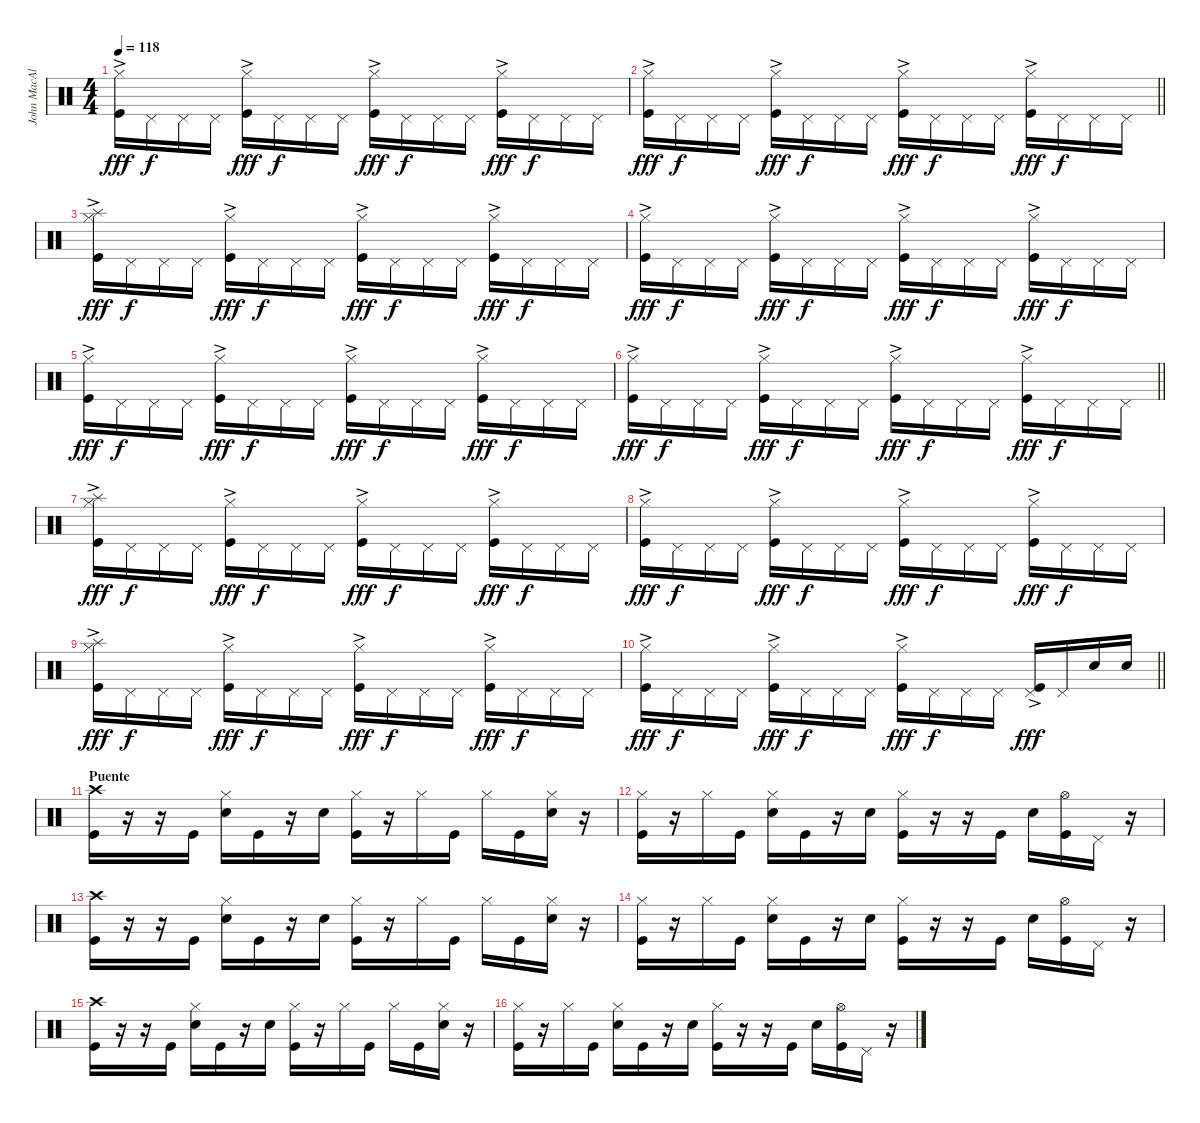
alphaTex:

\track ("John MacAluso" "John MacAl") {instrument percussion}
\staff {score}
\articulation defaults
\ts (4 4)
\tempo 118
\clef neutral
\ks c
("Hi-Hat (closed)"{ac} "Kick (hit)").16{dy fff} "Pedal Hi-Hat (hit)".16{dy f} "Pedal Hi-Hat (hit)".16 "Pedal Hi-Hat (hit)".16 ("Hi-Hat (closed)"{ac} "Kick (hit)").16{dy fff} "Pedal Hi-Hat (hit)".16{dy f} "Pedal Hi-Hat (hit)".16 "Pedal Hi-Hat (hit)".16 ("Hi-Hat (closed)"{ac} "Kick (hit)").16{dy fff} "Pedal Hi-Hat (hit)".16{dy f} "Pedal Hi-Hat (hit)".16 "Pedal Hi-Hat (hit)".16 ("Hi-Hat (closed)"{ac} "Kick (hit)").16{dy fff} "Pedal Hi-Hat (hit)".16{dy f} "Pedal Hi-Hat (hit)".16 "Pedal Hi-Hat (hit)".16 |
\barLineRight lightlight
("Hi-Hat (closed)"{ac} "Kick (hit)").16{dy fff} "Pedal Hi-Hat (hit)".16{dy f} "Pedal Hi-Hat (hit)".16 "Pedal Hi-Hat (hit)".16 ("Hi-Hat (closed)"{ac} "Kick (hit)").16{dy fff} "Pedal Hi-Hat (hit)".16{dy f} "Pedal Hi-Hat (hit)".16 "Pedal Hi-Hat (hit)".16 ("Hi-Hat (closed)"{ac} "Kick (hit)").16{dy fff} "Pedal Hi-Hat (hit)".16{dy f} "Pedal Hi-Hat (hit)".16 "Pedal Hi-Hat (hit)".16 ("Hi-Hat (closed)"{ac} "Kick (hit)").16{dy fff} "Pedal Hi-Hat (hit)".16{dy f} "Pedal Hi-Hat (hit)".16 "Pedal Hi-Hat (hit)".16 |
("Splash (hit)" "Hi-Hat (closed)"{ac} "Kick (hit)").16{dy fff} "Pedal Hi-Hat (hit)".16{dy f} "Pedal Hi-Hat (hit)".16 "Pedal Hi-Hat (hit)".16 ("Hi-Hat (closed)"{ac} "Kick (hit)").16{dy fff} "Pedal Hi-Hat (hit)".16{dy f} "Pedal Hi-Hat (hit)".16 "Pedal Hi-Hat (hit)".16 ("Hi-Hat (closed)"{ac} "Kick (hit)").16{dy fff} "Pedal Hi-Hat (hit)".16{dy f} "Pedal Hi-Hat (hit)".16 "Pedal Hi-Hat (hit)".16 ("Hi-Hat (closed)"{ac} "Kick (hit)").16{dy fff} "Pedal Hi-Hat (hit)".16{dy f} "Pedal Hi-Hat (hit)".16 "Pedal Hi-Hat (hit)".16 |
("Hi-Hat (closed)"{ac} "Kick (hit)").16{dy fff} "Pedal Hi-Hat (hit)".16{dy f} "Pedal Hi-Hat (hit)".16 "Pedal Hi-Hat (hit)".16 ("Hi-Hat (closed)"{ac} "Kick (hit)").16{dy fff} "Pedal Hi-Hat (hit)".16{dy f} "Pedal Hi-Hat (hit)".16 "Pedal Hi-Hat (hit)".16 ("Hi-Hat (closed)"{ac} "Kick (hit)").16{dy fff} "Pedal Hi-Hat (hit)".16{dy f} "Pedal Hi-Hat (hit)".16 "Pedal Hi-Hat (hit)".16 ("Hi-Hat (closed)"{ac} "Kick (hit)").16{dy fff} "Pedal Hi-Hat (hit)".16{dy f} "Pedal Hi-Hat (hit)".16 "Pedal Hi-Hat (hit)".16 |
("Hi-Hat (closed)"{ac} "Kick (hit)").16{dy fff} "Pedal Hi-Hat (hit)".16{dy f} "Pedal Hi-Hat (hit)".16 "Pedal Hi-Hat (hit)".16 ("Hi-Hat (closed)"{ac} "Kick (hit)").16{dy fff} "Pedal Hi-Hat (hit)".16{dy f} "Pedal Hi-Hat (hit)".16 "Pedal Hi-Hat (hit)".16 ("Hi-Hat (closed)"{ac} "Kick (hit)").16{dy fff} "Pedal Hi-Hat (hit)".16{dy f} "Pedal Hi-Hat (hit)".16 "Pedal Hi-Hat (hit)".16 ("Hi-Hat (closed)"{ac} "Kick (hit)").16{dy fff} "Pedal Hi-Hat (hit)".16{dy f} "Pedal Hi-Hat (hit)".16 "Pedal Hi-Hat (hit)".16 |
\barLineRight lightlight
("Hi-Hat (closed)"{ac} "Kick (hit)").16{dy fff} "Pedal Hi-Hat (hit)".16{dy f} "Pedal Hi-Hat (hit)".16 "Pedal Hi-Hat (hit)".16 ("Hi-Hat (closed)"{ac} "Kick (hit)").16{dy fff} "Pedal Hi-Hat (hit)".16{dy f} "Pedal Hi-Hat (hit)".16 "Pedal Hi-Hat (hit)".16 ("Hi-Hat (closed)"{ac} "Kick (hit)").16{dy fff} "Pedal Hi-Hat (hit)".16{dy f} "Pedal Hi-Hat (hit)".16 "Pedal Hi-Hat (hit)".16 ("Hi-Hat (closed)"{ac} "Kick (hit)").16{dy fff} "Pedal Hi-Hat (hit)".16{dy f} "Pedal Hi-Hat (hit)".16 "Pedal Hi-Hat (hit)".16 |
("Splash (hit)" "Hi-Hat (closed)"{ac} "Kick (hit)").16{dy fff} "Pedal Hi-Hat (hit)".16{dy f} "Pedal Hi-Hat (hit)".16 "Pedal Hi-Hat (hit)".16 ("Hi-Hat (closed)"{ac} "Kick (hit)").16{dy fff} "Pedal Hi-Hat (hit)".16{dy f} "Pedal Hi-Hat (hit)".16 "Pedal Hi-Hat (hit)".16 ("Hi-Hat (closed)"{ac} "Kick (hit)").16{dy fff} "Pedal Hi-Hat (hit)".16{dy f} "Pedal Hi-Hat (hit)".16 "Pedal Hi-Hat (hit)".16 ("Hi-Hat (closed)"{ac} "Kick (hit)").16{dy fff} "Pedal Hi-Hat (hit)".16{dy f} "Pedal Hi-Hat (hit)".16 "Pedal Hi-Hat (hit)".16 |
("Hi-Hat (closed)"{ac} "Kick (hit)").16{dy fff} "Pedal Hi-Hat (hit)".16{dy f} "Pedal Hi-Hat (hit)".16 "Pedal Hi-Hat (hit)".16 ("Hi-Hat (closed)"{ac} "Kick (hit)").16{dy fff} "Pedal Hi-Hat (hit)".16{dy f} "Pedal Hi-Hat (hit)".16 "Pedal Hi-Hat (hit)".16 ("Hi-Hat (closed)"{ac} "Kick (hit)").16{dy fff} "Pedal Hi-Hat (hit)".16{dy f} "Pedal Hi-Hat (hit)".16 "Pedal Hi-Hat (hit)".16 ("Hi-Hat (closed)"{ac} "Kick (hit)").16{dy fff} "Pedal Hi-Hat (hit)".16{dy f} "Pedal Hi-Hat (hit)".16 "Pedal Hi-Hat (hit)".16 |
("Splash (hit)" "Hi-Hat (closed)"{ac} "Kick (hit)").16{dy fff} "Pedal Hi-Hat (hit)".16{dy f} "Pedal Hi-Hat (hit)".16 "Pedal Hi-Hat (hit)".16 ("Hi-Hat (closed)"{ac} "Kick (hit)").16{dy fff} "Pedal Hi-Hat (hit)".16{dy f} "Pedal Hi-Hat (hit)".16 "Pedal Hi-Hat (hit)".16 ("Hi-Hat (closed)"{ac} "Kick (hit)").16{dy fff} "Pedal Hi-Hat (hit)".16{dy f} "Pedal Hi-Hat (hit)".16 "Pedal Hi-Hat (hit)".16 ("Hi-Hat (closed)"{ac} "Kick (hit)").16{dy fff} "Pedal Hi-Hat (hit)".16{dy f} "Pedal Hi-Hat (hit)".16 "Pedal Hi-Hat (hit)".16 |
\barLineRight lightlight
("Hi-Hat (closed)"{ac} "Kick (hit)").16{dy fff} "Pedal Hi-Hat (hit)".16{dy f} "Pedal Hi-Hat (hit)".16 "Pedal Hi-Hat (hit)".16 ("Hi-Hat (closed)"{ac} "Kick (hit)").16{dy fff} "Pedal Hi-Hat (hit)".16{dy f} "Pedal Hi-Hat (hit)".16 "Pedal Hi-Hat (hit)".16 ("Hi-Hat (closed)"{ac} "Kick (hit)").16{dy fff} "Pedal Hi-Hat (hit)".16{dy f} "Pedal Hi-Hat (hit)".16 "Pedal Hi-Hat (hit)".16 ("Pedal Hi-Hat (hit)"{ac} "Kick (hit)").16{dy fff} "Pedal Hi-Hat (hit)".16 "Electric Snare (hit)".16 "Electric Snare (hit)".16 |
\section ("" "Puente")
("Crash high (hit)" "Kick (hit)").16 r.16 r.16 "Kick (hit)".16 ("Hi-Hat (closed)" "Electric Snare (hit)").16 "Kick (hit)".16 r.16 "Electric Snare (hit)".16 ("Hi-Hat (closed)" "Kick (hit)").16 r.16 "Hi-Hat (closed)".16 "Kick (hit)".16 "Hi-Hat (closed)".16 "Kick (hit)".16 ("Hi-Hat (closed)" "Electric Snare (hit)").16 r.16 |
("Hi-Hat (closed)" "Kick (hit)").16 r.16 "Hi-Hat (closed)".16 "Kick (hit)".16 ("Hi-Hat (closed)" "Electric Snare (hit)").16 "Kick (hit)".16 r.16 "Electric Snare (hit)".16 ("Hi-Hat (closed)" "Kick (hit)").16 r.16 r.16 "Kick (hit)".16 "Electric Snare (hit)".16 ("Hi-Hat (open)" "Kick (hit)").16 "Pedal Hi-Hat (hit)".16 r.16 |
("Crash high (hit)" "Kick (hit)").16 r.16 r.16 "Kick (hit)".16 ("Hi-Hat (closed)" "Electric Snare (hit)").16 "Kick (hit)".16 r.16 "Electric Snare (hit)".16 ("Hi-Hat (closed)" "Kick (hit)").16 r.16 "Hi-Hat (closed)".16 "Kick (hit)".16 "Hi-Hat (closed)".16 "Kick (hit)".16 ("Hi-Hat (closed)" "Electric Snare (hit)").16 r.16 |
("Hi-Hat (closed)" "Kick (hit)").16 r.16 "Hi-Hat (closed)".16 "Kick (hit)".16 ("Hi-Hat (closed)" "Electric Snare (hit)").16 "Kick (hit)".16 r.16 "Electric Snare (hit)".16 ("Hi-Hat (closed)" "Kick (hit)").16 r.16 r.16 "Kick (hit)".16 "Electric Snare (hit)".16 ("Hi-Hat (open)" "Kick (hit)").16 "Pedal Hi-Hat (hit)".16 r.16 |
("Crash high (hit)" "Kick (hit)").16 r.16 r.16 "Kick (hit)".16 ("Hi-Hat (closed)" "Electric Snare (hit)").16 "Kick (hit)".16 r.16 "Electric Snare (hit)".16 ("Hi-Hat (closed)" "Kick (hit)").16 r.16 "Hi-Hat (closed)".16 "Kick (hit)".16 "Hi-Hat (closed)".16 "Kick (hit)".16 ("Hi-Hat (closed)" "Electric Snare (hit)").16 r.16 |
("Hi-Hat (closed)" "Kick (hit)").16 r.16 "Hi-Hat (closed)".16 "Kick (hit)".16 ("Hi-Hat (closed)" "Electric Snare (hit)").16 "Kick (hit)".16 r.16 "Electric Snare (hit)".16 ("Hi-Hat (closed)" "Kick (hit)").16 r.16 r.16 "Kick (hit)".16 "Electric Snare (hit)".16 ("Hi-Hat (open)" "Kick (hit)").16 "Pedal Hi-Hat (hit)".16 r.16
